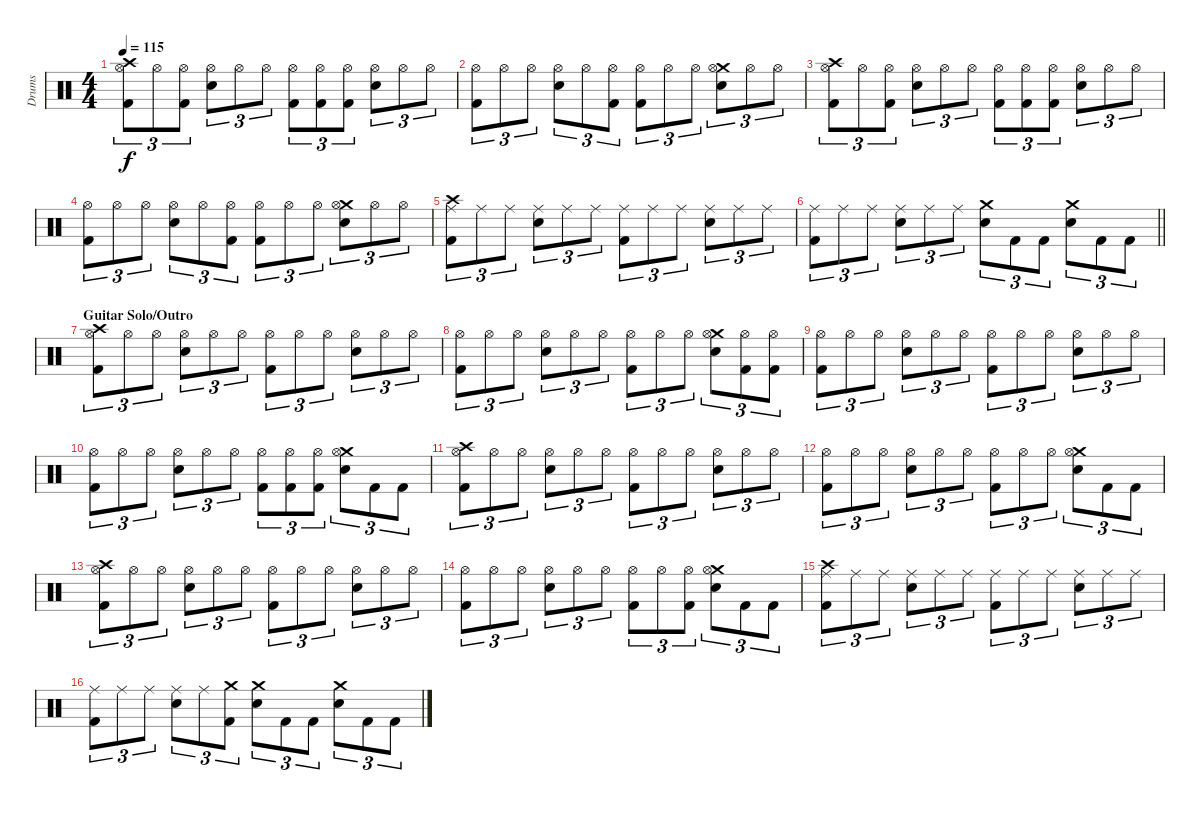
\track ("Drums" "Drums") {instrument percussion}
\staff {score}
\articulation defaults
\ts (4 4)
\tempo 115
\clef neutral
\ks c
("Crash high (hit)" "Hi-Hat (open)" "Kick (hit) 2").8{tu (3 2) dy f} "Hi-Hat (open)".8{tu (3 2)} ("Hi-Hat (open)" "Kick (hit) 2").8{tu (3 2)} ("Hi-Hat (open)" "Snare (hit) 2").8{tu (3 2)} "Hi-Hat (open)".8{tu (3 2)} "Hi-Hat (open)".8{tu (3 2)} ("Hi-Hat (open)" "Kick (hit) 2").8{tu (3 2)} ("Hi-Hat (open)" "Kick (hit) 2").8{tu (3 2)} ("Hi-Hat (open)" "Kick (hit) 2").8{tu (3 2)} ("Hi-Hat (open)" "Snare (hit) 2").8{tu (3 2)} "Hi-Hat (open)".8{tu (3 2)} "Hi-Hat (open)".8{tu (3 2)} |
("Hi-Hat (open)" "Kick (hit) 2").8{tu (3 2)} "Hi-Hat (open)".8{tu (3 2)} "Hi-Hat (open)".8{tu (3 2)} ("Hi-Hat (open)" "Snare (hit) 2").8{tu (3 2)} "Hi-Hat (open)".8{tu (3 2)} ("Hi-Hat (open)" "Kick (hit) 2").8{tu (3 2)} ("Hi-Hat (open)" "Kick (hit) 2").8{tu (3 2)} "Hi-Hat (open)".8{tu (3 2)} "Hi-Hat (open)".8{tu (3 2)} ("Crash medium (hit)" "Hi-Hat (open)" "Snare (hit) 2").8{tu (3 2)} "Hi-Hat (open)".8{tu (3 2)} "Hi-Hat (open)".8{tu (3 2)} |
("Crash high (hit)" "Hi-Hat (open)" "Kick (hit) 2").8{tu (3 2)} "Hi-Hat (open)".8{tu (3 2)} ("Hi-Hat (open)" "Kick (hit) 2").8{tu (3 2)} ("Hi-Hat (open)" "Snare (hit) 2").8{tu (3 2)} "Hi-Hat (open)".8{tu (3 2)} "Hi-Hat (open)".8{tu (3 2)} ("Hi-Hat (open)" "Kick (hit) 2").8{tu (3 2)} ("Hi-Hat (open)" "Kick (hit) 2").8{tu (3 2)} ("Hi-Hat (open)" "Kick (hit) 2").8{tu (3 2)} ("Hi-Hat (open)" "Snare (hit) 2").8{tu (3 2)} "Hi-Hat (open)".8{tu (3 2)} "Hi-Hat (open)".8{tu (3 2)} |
("Hi-Hat (open)" "Kick (hit) 2").8{tu (3 2)} "Hi-Hat (open)".8{tu (3 2)} "Hi-Hat (open)".8{tu (3 2)} ("Hi-Hat (open)" "Snare (hit) 2").8{tu (3 2)} "Hi-Hat (open)".8{tu (3 2)} ("Hi-Hat (open)" "Kick (hit) 2").8{tu (3 2)} ("Hi-Hat (open)" "Kick (hit) 2").8{tu (3 2)} "Hi-Hat (open)".8{tu (3 2)} "Hi-Hat (open)".8{tu (3 2)} ("Crash medium (hit)" "Hi-Hat (open)" "Snare (hit) 2").8{tu (3 2)} "Hi-Hat (open)".8{tu (3 2)} "Hi-Hat (open)".8{tu (3 2)} |
("Crash high (hit)" "Ride (middle)" "Kick (hit) 2").8{tu (3 2)} "Ride (middle)".8{tu (3 2)} "Ride (middle)".8{tu (3 2)} ("Ride (middle)" "Snare (hit) 2").8{tu (3 2)} "Ride (middle)".8{tu (3 2)} "Ride (middle)".8{tu (3 2)} ("Ride (middle)" "Kick (hit) 2").8{tu (3 2)} "Ride (middle)".8{tu (3 2)} "Ride (middle)".8{tu (3 2)} ("Ride (middle)" "Snare (hit) 2").8{tu (3 2)} "Ride (middle)".8{tu (3 2)} "Ride (middle)".8{tu (3 2)} |
\barLineRight lightlight
("Ride (middle)" "Kick (hit) 2").8{tu (3 2)} "Ride (middle)".8{tu (3 2)} "Ride (middle)".8{tu (3 2)} ("Ride (middle)" "Snare (hit) 2").8{tu (3 2)} "Ride (middle)".8{tu (3 2)} "Ride (middle)".8{tu (3 2)} ("Crash medium (hit)" "Snare (hit) 2").8{tu (3 2)} "Kick (hit) 2".8{tu (3 2)} "Kick (hit) 2".8{tu (3 2)} ("Crash medium (hit)" "Snare (hit) 2").8{tu (3 2)} "Kick (hit) 2".8{tu (3 2)} "Kick (hit) 2".8{tu (3 2)} |
\section ("" "Guitar Solo/Outro")
("Crash high (hit)" "Hi-Hat (open)" "Kick (hit) 2").8{tu (3 2)} "Hi-Hat (open)".8{tu (3 2)} "Hi-Hat (open)".8{tu (3 2)} ("Hi-Hat (open)" "Snare (hit) 2").8{tu (3 2)} "Hi-Hat (open)".8{tu (3 2)} "Hi-Hat (open)".8{tu (3 2)} ("Hi-Hat (open)" "Kick (hit) 2").8{tu (3 2)} "Hi-Hat (open)".8{tu (3 2)} "Hi-Hat (open)".8{tu (3 2)} ("Hi-Hat (open)" "Snare (hit) 2").8{tu (3 2)} "Hi-Hat (open)".8{tu (3 2)} "Hi-Hat (open)".8{tu (3 2)} |
("Hi-Hat (open)" "Kick (hit) 2").8{tu (3 2)} "Hi-Hat (open)".8{tu (3 2)} "Hi-Hat (open)".8{tu (3 2)} ("Hi-Hat (open)" "Snare (hit) 2").8{tu (3 2)} "Hi-Hat (open)".8{tu (3 2)} "Hi-Hat (open)".8{tu (3 2)} ("Hi-Hat (open)" "Kick (hit) 2").8{tu (3 2)} "Hi-Hat (open)".8{tu (3 2)} "Hi-Hat (open)".8{tu (3 2)} ("Crash medium (hit)" "Hi-Hat (open)" "Snare (hit) 2").8{tu (3 2)} ("Hi-Hat (open)" "Kick (hit) 2").8{tu (3 2)} ("Hi-Hat (open)" "Kick (hit) 2").8{tu (3 2)} |
("Hi-Hat (open)" "Kick (hit) 2").8{tu (3 2)} "Hi-Hat (open)".8{tu (3 2)} "Hi-Hat (open)".8{tu (3 2)} ("Hi-Hat (open)" "Snare (hit) 2").8{tu (3 2)} "Hi-Hat (open)".8{tu (3 2)} "Hi-Hat (open)".8{tu (3 2)} ("Hi-Hat (open)" "Kick (hit) 2").8{tu (3 2)} "Hi-Hat (open)".8{tu (3 2)} "Hi-Hat (open)".8{tu (3 2)} ("Hi-Hat (open)" "Snare (hit) 2").8{tu (3 2)} "Hi-Hat (open)".8{tu (3 2)} "Hi-Hat (open)".8{tu (3 2)} |
("Hi-Hat (open)" "Kick (hit) 2").8{tu (3 2)} "Hi-Hat (open)".8{tu (3 2)} "Hi-Hat (open)".8{tu (3 2)} ("Hi-Hat (open)" "Snare (hit) 2").8{tu (3 2)} "Hi-Hat (open)".8{tu (3 2)} "Hi-Hat (open)".8{tu (3 2)} ("Hi-Hat (open)" "Kick (hit) 2").8{tu (3 2)} ("Hi-Hat (open)" "Kick (hit) 2").8{tu (3 2)} ("Hi-Hat (open)" "Kick (hit) 2").8{tu (3 2)} ("Crash medium (hit)" "Hi-Hat (open)" "Snare (hit) 2").8{tu (3 2)} "Kick (hit) 2".8{tu (3 2)} "Kick (hit) 2".8{tu (3 2)} |
("Crash high (hit)" "Hi-Hat (open)" "Kick (hit) 2").8{tu (3 2)} "Hi-Hat (open)".8{tu (3 2)} "Hi-Hat (open)".8{tu (3 2)} ("Hi-Hat (open)" "Snare (hit) 2").8{tu (3 2)} "Hi-Hat (open)".8{tu (3 2)} "Hi-Hat (open)".8{tu (3 2)} ("Hi-Hat (open)" "Kick (hit) 2").8{tu (3 2)} "Hi-Hat (open)".8{tu (3 2)} "Hi-Hat (open)".8{tu (3 2)} ("Hi-Hat (open)" "Snare (hit) 2").8{tu (3 2)} "Hi-Hat (open)".8{tu (3 2)} "Hi-Hat (open)".8{tu (3 2)} |
("Hi-Hat (open)" "Kick (hit) 2").8{tu (3 2)} "Hi-Hat (open)".8{tu (3 2)} "Hi-Hat (open)".8{tu (3 2)} ("Hi-Hat (open)" "Snare (hit) 2").8{tu (3 2)} "Hi-Hat (open)".8{tu (3 2)} "Hi-Hat (open)".8{tu (3 2)} ("Hi-Hat (open)" "Kick (hit) 2").8{tu (3 2)} "Hi-Hat (open)".8{tu (3 2)} "Hi-Hat (open)".8{tu (3 2)} ("Crash medium (hit)" "Hi-Hat (open)" "Snare (hit) 2").8{tu (3 2)} "Kick (hit) 2".8{tu (3 2)} "Kick (hit) 2".8{tu (3 2)} |
("Crash high (hit)" "Hi-Hat (open)" "Kick (hit) 2").8{tu (3 2)} "Hi-Hat (open)".8{tu (3 2)} "Hi-Hat (open)".8{tu (3 2)} ("Hi-Hat (open)" "Snare (hit) 2").8{tu (3 2)} "Hi-Hat (open)".8{tu (3 2)} "Hi-Hat (open)".8{tu (3 2)} ("Hi-Hat (open)" "Kick (hit) 2").8{tu (3 2)} "Hi-Hat (open)".8{tu (3 2)} "Hi-Hat (open)".8{tu (3 2)} ("Hi-Hat (open)" "Snare (hit) 2").8{tu (3 2)} "Hi-Hat (open)".8{tu (3 2)} "Hi-Hat (open)".8{tu (3 2)} |
("Hi-Hat (open)" "Kick (hit) 2").8{tu (3 2)} "Hi-Hat (open)".8{tu (3 2)} "Hi-Hat (open)".8{tu (3 2)} ("Hi-Hat (open)" "Snare (hit) 2").8{tu (3 2)} "Hi-Hat (open)".8{tu (3 2)} "Hi-Hat (open)".8{tu (3 2)} ("Hi-Hat (open)" "Kick (hit) 2").8{tu (3 2)} "Hi-Hat (open)".8{tu (3 2)} ("Hi-Hat (open)" "Kick (hit) 2").8{tu (3 2)} ("Crash medium (hit)" "Hi-Hat (open)" "Snare (hit) 2").8{tu (3 2)} "Kick (hit) 2".8{tu (3 2)} "Kick (hit) 2".8{tu (3 2)} |
("Crash high (hit)" "Ride (middle)" "Kick (hit) 2").8{tu (3 2)} "Ride (middle)".8{tu (3 2)} "Ride (middle)".8{tu (3 2)} ("Ride (middle)" "Snare (hit) 2").8{tu (3 2)} "Ride (middle)".8{tu (3 2)} "Ride (middle)".8{tu (3 2)} ("Ride (middle)" "Kick (hit) 2").8{tu (3 2)} "Ride (middle)".8{tu (3 2)} "Ride (middle)".8{tu (3 2)} ("Ride (middle)" "Snare (hit) 2").8{tu (3 2)} "Ride (middle)".8{tu (3 2)} "Ride (middle)".8{tu (3 2)} |
("Ride (middle)" "Kick (hit) 2").8{tu (3 2)} "Ride (middle)".8{tu (3 2)} "Ride (middle)".8{tu (3 2)} ("Ride (middle)" "Snare (hit) 2").8{tu (3 2)} "Ride (middle)".8{tu (3 2)} ("Crash medium (hit)" "Kick (hit) 2").8{tu (3 2)} ("Crash medium (hit)" "Snare (hit) 2").8{tu (3 2)} "Kick (hit) 2".8{tu (3 2)} "Kick (hit) 2".8{tu (3 2)} ("Crash medium (hit)" "Snare (hit) 2").8{tu (3 2)} "Kick (hit) 2".8{tu (3 2)} "Kick (hit) 2".8{tu (3 2)}
